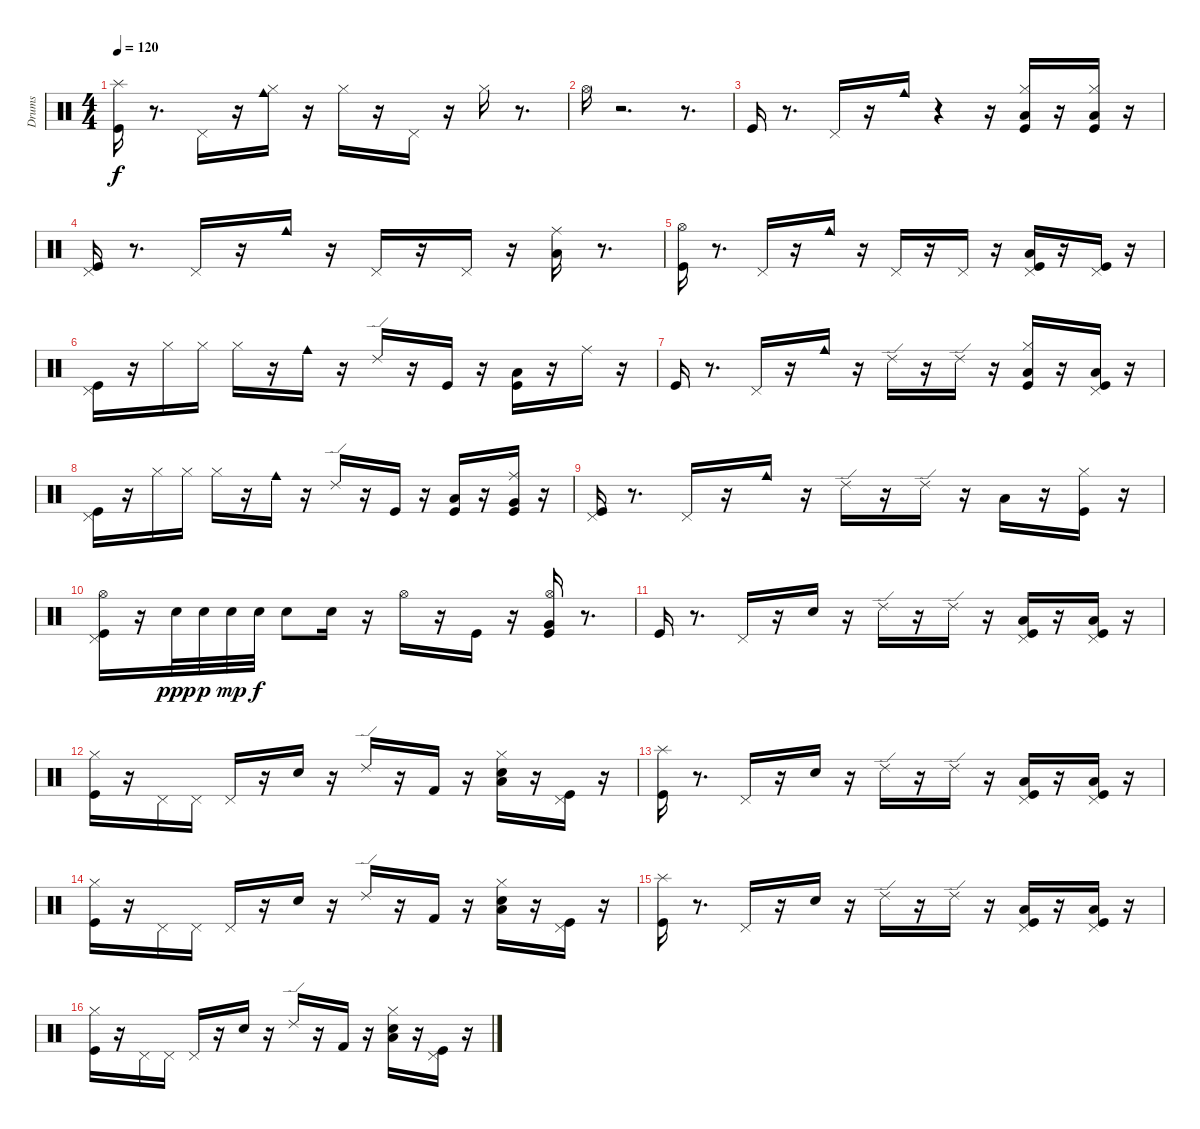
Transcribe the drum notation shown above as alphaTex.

\track ("Drums" "Drums") {instrument percussion}
\staff {score}
\articulation defaults
\ts (4 4)
\tempo 120
\clef neutral
\ks c
("Splash (hit)" "Kick (hit)").16{dy f} r.8{d} "Pedal Hi-Hat (hit)".16 r.16 ("Hi-Hat (closed)" "Cowbell medium (hit)").16 r.16 "Hi-Hat (closed)".16 r.16 "Pedal Hi-Hat (hit)".16 r.16 "Hi-Hat (closed)".16 r.8{d} |
"Hi-Hat (open)".16 r.2{d} r.8{d} |
"Kick (hit)".16 r.8{d} "Pedal Hi-Hat (hit)".16 r.16 "Cowbell medium (hit)".16 r.4 r.16 ("Hi-Hat (closed)" "Kick (hit)" "Low Tom (hit)").16 r.16 ("Hi-Hat (closed)" "Kick (hit)" "Low Tom (hit)").16 r.16 |
("Pedal Hi-Hat (hit)" "Kick (hit)").16 r.8{d} "Pedal Hi-Hat (hit)".16 r.16 "Cowbell medium (hit)".16 r.16 "Pedal Hi-Hat (hit)".16 r.16 "Pedal Hi-Hat (hit)".16 r.16 ("Ride (middle)" "Low Tom (hit)").16 r.8{d} |
("Kick (hit)" "Hi-Hat (open)").16 r.8{d} "Pedal Hi-Hat (hit)".16 r.16 "Cowbell medium (hit)".16 r.16 "Pedal Hi-Hat (hit)".16 r.16 "Pedal Hi-Hat (hit)".16 r.16 ("Kick (hit)" "Pedal Hi-Hat (hit)" "Low Tom (hit)").16 r.16 ("Kick (hit)" "Pedal Hi-Hat (hit)").16 r.16 |
("Pedal Hi-Hat (hit)" "Kick (hit)").16 r.16 "Hi-Hat (closed)".16 "Hi-Hat (closed)".16 "Hi-Hat (closed)".16 r.16 "Cowbell medium (hit)".16 r.16 "Ride (edge) 2".16 r.16 "Kick (hit)".16 r.16 ("Kick (hit)" "Low Tom (hit)").16 r.16 "Ride (middle)".16 r.16 |
"Kick (hit)".16 r.8{d} "Pedal Hi-Hat (hit)".16 r.16 "Cowbell medium (hit)".16 r.16 "Ride (edge) 2".16 r.16 "Ride (edge) 2".16 r.16 ("Hi-Hat (closed)" "Kick (hit)" "Low Tom (hit)").16 r.16 ("Pedal Hi-Hat (hit)" "Kick (hit)" "Low Tom (hit)").16 r.16 |
("Pedal Hi-Hat (hit)" "Kick (hit)").16 r.16 "Hi-Hat (closed)".16 "Hi-Hat (closed)".16 "Hi-Hat (closed)".16 r.16 "Cowbell medium (hit)".16 r.16 "Ride (edge) 2".16 r.16 "Kick (hit)".16 r.16 ("Kick (hit)" "Low Tom (hit)").16 r.16 ("Kick (hit)" "Very Low Tom (hit)" "Ride (middle)").16 r.16 |
("Pedal Hi-Hat (hit)" "Kick (hit)").16 r.8{d} "Pedal Hi-Hat (hit)".16 r.16 "Cowbell medium (hit)".16 r.16 "Ride (edge) 2".16 r.16 "Ride (edge) 2".16 r.16 "Low Tom (hit)".16 r.16 ("Hi-Hat (closed)" "Kick (hit)").16 r.16 |
("Hi-Hat (open)" "Pedal Hi-Hat (hit)" "Kick (hit)").16 r.16 "Electric Snare (hit)".32{dy ppp} "Electric Snare (hit)".32{dy p} "Electric Snare (hit)".32{dy mp} "Electric Snare (hit)".32{dy f} "Electric Snare (hit)".8 "Electric Snare (hit)".16 r.16 "Hi-Hat (open)".16 r.16 "Kick (hit)".16 r.16 ("Kick (hit)" "Hi-Hat (open)" "Very Low Tom (hit)").16 r.8{d} |
"Kick (hit)".16 r.8{d} "Pedal Hi-Hat (hit)".16 r.16 "Electric Snare (hit)".16 r.16 "Ride (edge) 2".16 r.16 "Ride (edge) 2".16 r.16 ("Pedal Hi-Hat (hit)" "Kick (hit)" "Low Tom (hit)").16 r.16 ("Pedal Hi-Hat (hit)" "Kick (hit)" "Low Tom (hit)").16 r.16 |
("Hi-Hat (closed)" "Kick (hit)").16 r.16 "Pedal Hi-Hat (hit)".16 "Pedal Hi-Hat (hit)".16 "Pedal Hi-Hat (hit)".16 r.16 "Electric Snare (hit)".16 r.16 "Ride (edge) 2".16 r.16 "Kick (hit) 2".16 r.16 ("Hi-Hat (closed)" "Low Tom (hit)" "Electric Snare (hit)").16 r.16 ("Pedal Hi-Hat (hit)" "Kick (hit)").16 r.16 |
("Splash (hit)" "Kick (hit)").16 r.8{d} "Pedal Hi-Hat (hit)".16 r.16 "Electric Snare (hit)".16 r.16 "Ride (edge) 2".16 r.16 "Ride (edge) 2".16 r.16 ("Pedal Hi-Hat (hit)" "Kick (hit)" "Low Tom (hit)").16 r.16 ("Pedal Hi-Hat (hit)" "Kick (hit)" "Low Tom (hit)").16 r.16 |
("Hi-Hat (closed)" "Kick (hit)").16 r.16 "Pedal Hi-Hat (hit)".16 "Pedal Hi-Hat (hit)".16 "Pedal Hi-Hat (hit)".16 r.16 "Electric Snare (hit)".16 r.16 "Ride (edge) 2".16 r.16 "Kick (hit) 2".16 r.16 ("Hi-Hat (closed)" "Low Tom (hit)" "Electric Snare (hit)").16 r.16 ("Pedal Hi-Hat (hit)" "Kick (hit)").16 r.16 |
("Splash (hit)" "Kick (hit)").16 r.8{d} "Pedal Hi-Hat (hit)".16 r.16 "Electric Snare (hit)".16 r.16 "Ride (edge) 2".16 r.16 "Ride (edge) 2".16 r.16 ("Pedal Hi-Hat (hit)" "Kick (hit)" "Low Tom (hit)").16 r.16 ("Pedal Hi-Hat (hit)" "Kick (hit)" "Low Tom (hit)").16 r.16 |
("Hi-Hat (closed)" "Kick (hit)").16 r.16 "Pedal Hi-Hat (hit)".16 "Pedal Hi-Hat (hit)".16 "Pedal Hi-Hat (hit)".16 r.16 "Electric Snare (hit)".16 r.16 "Ride (edge) 2".16 r.16 "Kick (hit) 2".16 r.16 ("Hi-Hat (closed)" "Low Tom (hit)" "Electric Snare (hit)").16 r.16 ("Pedal Hi-Hat (hit)" "Kick (hit)").16 r.16
